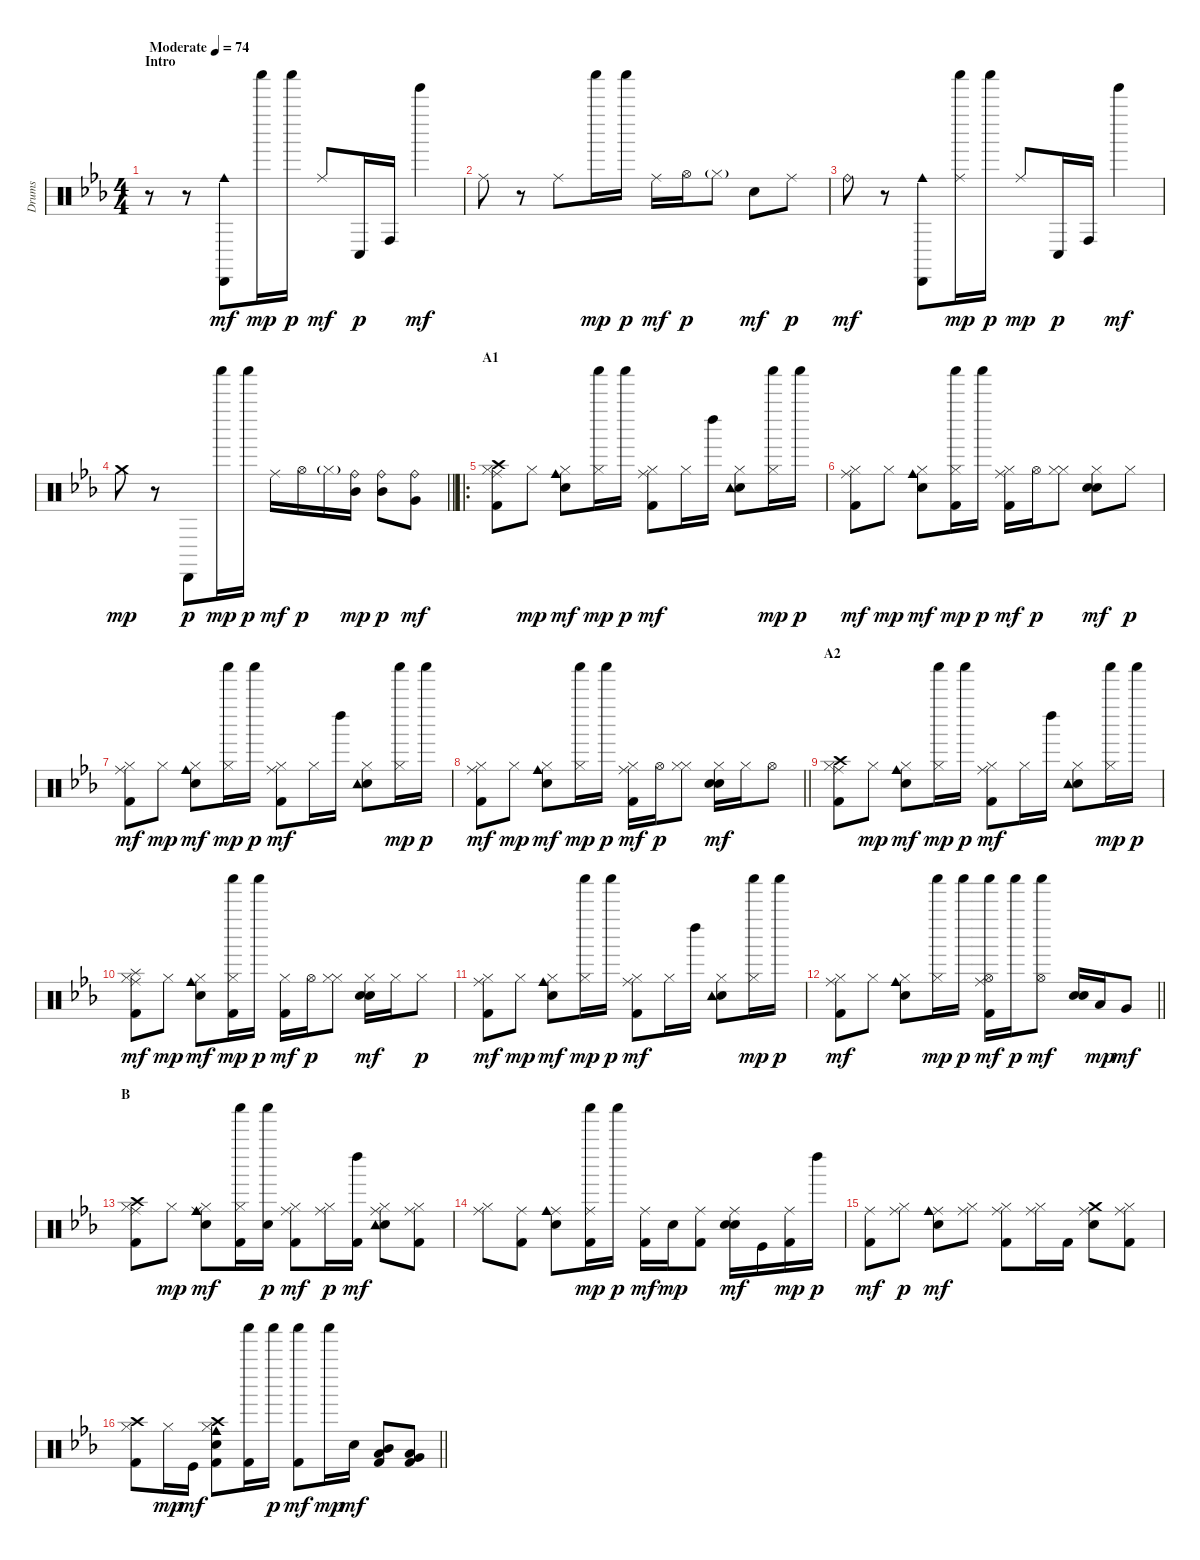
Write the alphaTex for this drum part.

\track ("Drums" "Drums") {instrument percussion}
\staff {score}
\articulation defaults
\ts (4 4)
\section ("" "Intro")
\tempo (74 "Moderate")
\clef neutral
\ks eb
r.8{dy mf} r.8 ("Cabasa (hit)" "Cowbell medium (hit)").8 "Shaker (hit)".16{dy mp} "Shaker (hit)".16{dy p} "Ride (middle)".8{dy mf} "Conga low (hit)".16{dy p} "Conga high (hit)".16 "Tinkle Bell (hit)".4{dy mf} |
"Ride (middle)".8 r.8 "Ride (middle)".8 "Shaker (hit)".16{dy mp} "Shaker (hit)".16{dy p} "Ride (middle)".16{dy mf} "Hi-Hat (open)".16{dy p} "Hi-Hat (closed)"{g}.8 "Hand Clap (hit)".8{dy mf} "Ride (middle)".8{dy p} |
"Ride (bell)".8{dy mf} r.8 ("Cabasa (hit)" "Cowbell medium (hit)").8 ("Shaker (hit)" "Ride (middle)").16{dy mp} "Shaker (hit)".16{dy p} "Ride (middle)".8{dy mp} "Conga low (hit)".16{dy p} "Conga high (hit)".16 "Tinkle Bell (hit)".4{dy mf} |
\barLineRight lightlight "Crash medium (hit)".8{dy mp}
r.8 "Cabasa (hit)".8{dy p} "Shaker (hit)".16{dy mp} "Shaker (hit)".16{dy p} "Ride (middle)".16{dy mf} "Hi-Hat (open)".16{dy p} "Hi-Hat (closed)"{g}.16 ("Ride (bell)" "Mid Tom (hit)").16{dy mp} ("Ride (bell)" "Mid Tom (hit)").8{dy p} ("Ride (bell)" "Very Low Tom (hit)").8{dy mf} |
\ro
\section ("" "A1")
("Crash high (hit)" "Hi-Hat (closed)" "Ride (middle)" "Kick (hit) 2").8 "Hi-Hat (closed)".8{dy mp} ("Hi-Hat (closed)" "Electric Snare (hit)" "Cowbell medium (hit)").8{dy mf} ("Shaker (hit)" "Hi-Hat (closed)").16{dy mp} "Shaker (hit)".16{dy p} ("Ride (middle)" "Hi-Hat (closed)" "Kick (hit) 2").8{dy mf} "Hi-Hat (closed)".16 "Left Maraca (hit)".16 ("Hi-Hat (closed)" "Electric Snare (hit)" "Tambourine (hit)").8 ("Shaker (hit)" "Hi-Hat (closed)").16{dy mp} "Shaker (hit)".16{dy p} |
("Ride (middle)" "Hi-Hat (closed)" "Kick (hit) 2").8{dy mf} "Hi-Hat (closed)".8{dy mp} ("Hi-Hat (closed)" "Electric Snare (hit)" "Cowbell medium (hit)").8{dy mf} ("Shaker (hit)" "Hi-Hat (closed)" "Kick (hit) 2").16{dy mp} "Shaker (hit)".16{dy p} ("Ride (middle)" "Hi-Hat (closed)" "Kick (hit) 2").16{dy mf} "Hi-Hat (open)".16{dy p} ("Hi-Hat (closed)" "Hi-Hat (closed)").8 ("Hi-Hat (closed)" "Electric Snare (hit)" "Hand Clap (hit)").8{dy mf} "Hi-Hat (closed)".8{dy p} |
("Ride (middle)" "Hi-Hat (closed)" "Kick (hit) 2").8{dy mf} "Hi-Hat (closed)".8{dy mp} ("Hi-Hat (closed)" "Electric Snare (hit)" "Cowbell medium (hit)").8{dy mf} ("Shaker (hit)" "Hi-Hat (closed)").16{dy mp} "Shaker (hit)".16{dy p} ("Ride (middle)" "Hi-Hat (closed)" "Kick (hit) 2").8{dy mf} "Hi-Hat (closed)".16 "Left Maraca (hit)".16 ("Hi-Hat (closed)" "Electric Snare (hit)" "Tambourine (hit)").8 ("Shaker (hit)" "Hi-Hat (closed)").16{dy mp} "Shaker (hit)".16{dy p} |
\barLineRight lightlight
("Ride (middle)" "Hi-Hat (closed)" "Kick (hit) 2").8{dy mf} "Hi-Hat (closed)".8{dy mp} ("Hi-Hat (closed)" "Electric Snare (hit)" "Cowbell medium (hit)").8{dy mf} ("Shaker (hit)" "Hi-Hat (closed)").16{dy mp} "Shaker (hit)".16{dy p} ("Ride (middle)" "Hi-Hat (closed)" "Kick (hit) 2").16{dy mf} "Hi-Hat (open)".16{dy p} ("Hi-Hat (closed)" "Hi-Hat (closed)").8 ("Hi-Hat (closed)" "Electric Snare (hit)" "Hand Clap (hit)").16{dy mf} "Hi-Hat (closed)".16 "Hi-Hat (open)".8 |
\section ("" "A2")
("Crash high (hit)" "Hi-Hat (closed)" "Ride (middle)" "Kick (hit) 2").8 "Hi-Hat (closed)".8{dy mp} ("Hi-Hat (closed)" "Electric Snare (hit)" "Cowbell medium (hit)").8{dy mf} ("Shaker (hit)" "Hi-Hat (closed)").16{dy mp} "Shaker (hit)".16{dy p} ("Ride (middle)" "Hi-Hat (closed)" "Kick (hit) 2").8{dy mf} "Hi-Hat (closed)".16 "Left Maraca (hit)".16 ("Hi-Hat (closed)" "Electric Snare (hit)" "Tambourine (hit)").8 ("Shaker (hit)" "Hi-Hat (closed)").16{dy mp} "Shaker (hit)".16{dy p} |
("Splash (hit)" "Hi-Hat (closed)" "Ride (middle)" "Kick (hit) 2").8{dy mf} "Hi-Hat (closed)".8{dy mp} ("Hi-Hat (closed)" "Electric Snare (hit)" "Cowbell medium (hit)").8{dy mf} ("Shaker (hit)" "Hi-Hat (closed)" "Kick (hit) 2").16{dy mp} "Shaker (hit)".16{dy p} ("Hi-Hat (closed)" "Kick (hit) 2").16{dy mf} "Hi-Hat (open)".16{dy p} ("Hi-Hat (closed)" "Hi-Hat (closed)").8 ("Hi-Hat (closed)" "Electric Snare (hit)" "Hand Clap (hit)").16{dy mf} "Hi-Hat (closed)".16 "Hi-Hat (closed)".8{dy p} |
("Ride (middle)" "Hi-Hat (closed)" "Kick (hit) 2").8{dy mf} "Hi-Hat (closed)".8{dy mp} ("Hi-Hat (closed)" "Electric Snare (hit)" "Cowbell medium (hit)").8{dy mf} ("Shaker (hit)" "Hi-Hat (closed)").16{dy mp} "Shaker (hit)".16{dy p} ("Ride (middle)" "Hi-Hat (closed)" "Kick (hit) 2").8{dy mf} "Hi-Hat (closed)".16 "Left Maraca (hit)".16 ("Hi-Hat (closed)" "Electric Snare (hit)" "Tambourine (hit)").8 ("Shaker (hit)" "Hi-Hat (closed)").16{dy mp} "Shaker (hit)".16{dy p} |
\barLineRight lightlight
("Ride (middle)" "Hi-Hat (closed)" "Kick (hit) 2").8{dy mf} "Hi-Hat (closed)".8 ("Hi-Hat (closed)" "Electric Snare (hit)" "Cowbell medium (hit)").8 ("Shaker (hit)" "Hi-Hat (closed)").16{dy mp} "Shaker (hit)".16{dy p} ("Shaker (hit)" "Hi-Hat (open)" "Ride (middle)" "Kick (hit) 2").16{dy mf} "Shaker (hit)".16{dy p} ("Shaker (hit)" "Hi-Hat (open)").8{dy mf} ("Snare (hit) 2" "Hand Clap (hit)").16 "Low Tom (hit)".16{dy mp} "Very Low Tom (hit)".8{dy mf} |
\section ("" "B")
("Crash high (hit)" "Hi-Hat (closed)" "Ride (middle)" "Kick (hit) 2").8 "Hi-Hat (closed)".8{dy mp} ("Hi-Hat (closed)" "Ride (middle)" "Snare (hit) 2" "Cowbell medium (hit)").8{dy mf} ("Shaker (hit)" "Hi-Hat (closed)" "Kick (hit) 2").16 ("Shaker (hit)" "Snare (hit) 2").16{dy p} ("Hi-Hat (closed)" "Ride (middle)" "Kick (hit) 2").8{dy mf} ("Hi-Hat (closed)" "Ride (middle)").16{dy p} ("Kick (hit) 2" "Left Maraca (hit)").16{dy mf} ("Hi-Hat (closed)" "Ride (middle)" "Snare (hit) 2" "Tambourine (hit)").8 ("Hi-Hat (closed)" "Ride (middle)" "Kick (hit) 2").8 |
("Ride (middle)" "Hi-Hat (closed)").8 ("Ride (middle)" "Kick (hit) 2").8 ("Ride (middle)" "Snare (hit) 2" "Cowbell medium (hit)").8 ("Shaker (hit)" "Ride (middle)" "Kick (hit) 2").16{dy mp} "Shaker (hit)".16{dy p} ("Ride (middle)" "Kick (hit) 2").16{dy mf} "Snare (hit) 2".16{dy mp} ("Ride (middle)" "Kick (hit) 2").8 ("Ride (middle)" "Snare (hit) 2" "Hand Clap (hit)").16{dy mf} "Kick (hit)".16 ("Ride (middle)" "Kick (hit) 2").16{dy mp} "Left Maraca (hit)".16{dy p} |
("Ride (middle)" "Kick (hit) 2").8{dy mf} ("Ride (middle)" "Hi-Hat (closed)").8{dy p} ("Ride (middle)" "Snare (hit) 2" "Cowbell medium (hit)").8{dy mf} ("Ride (middle)" "Hi-Hat (closed)").8 ("Ride (middle)" "Hi-Hat (closed)" "Kick (hit) 2").8 ("Ride (middle)" "Hi-Hat (closed)").16 "Kick (hit) 2".16 ("Crash medium (hit)" "Ride (middle)" "Snare (hit) 2").8 ("Ride (middle)" "Hi-Hat (closed)" "Kick (hit) 2").8 |
\barLineRight lightlight
("Crash high (hit)" "Hi-Hat (closed)" "Kick (hit) 2").8 "Hi-Hat (closed)".16{dy mp} "Kick (hit)".16{dy mf} ("Crash high (hit)" "Hi-Hat (closed)" "Snare (hit) 2" "Kick (hit) 2" "Cowbell medium (hit)").8 ("Shaker (hit)" "Kick (hit) 2").16 "Shaker (hit)".16{dy p} ("Shaker (hit)" "Kick (hit) 2").8{dy mf} "Shaker (hit)".16{dy mp} "Snare (hit) 2".16{dy mf} ("Mid Tom (hit)" "Low Tom (hit)" "Kick (hit) 2").8 ("Low Tom (hit)" "Very Low Tom (hit)" "Kick (hit) 2").8
